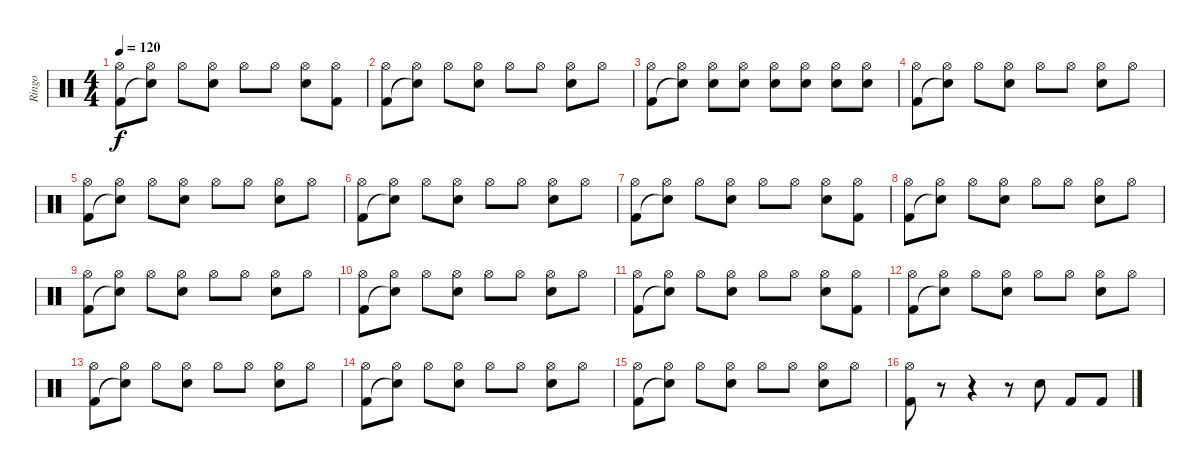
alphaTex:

\track ("Ringo" "Ringo") {instrument percussion}
\staff {score}
\articulation defaults
\ts (4 4)
\tempo 120
\clef neutral
\ks c
("Hi-Hat (open)" "Kick (hit) 2").8{dy f} ("Hi-Hat (open)" "Snare (hit)"{t}).8 "Hi-Hat (open)".8 ("Hi-Hat (open)" "Snare (hit) 2").8 "Hi-Hat (open)".8 "Hi-Hat (open)".8 ("Hi-Hat (open)" "Snare (hit) 2").8 ("Hi-Hat (open)" "Kick (hit) 2").8 |
("Hi-Hat (open)" "Kick (hit) 2").8 ("Hi-Hat (open)" "Snare (hit)"{t}).8 "Hi-Hat (open)".8 ("Hi-Hat (open)" "Snare (hit) 2").8 "Hi-Hat (open)".8 "Hi-Hat (open)".8 ("Hi-Hat (open)" "Snare (hit) 2").8 "Hi-Hat (open)".8 |
("Hi-Hat (open)" "Kick (hit) 2").8 ("Hi-Hat (open)" "Snare (hit)"{t}).8 ("Hi-Hat (open)" "Snare (hit) 2").8 ("Hi-Hat (open)" "Snare (hit) 2").8 ("Hi-Hat (open)" "Snare (hit) 2").8 ("Hi-Hat (open)" "Snare (hit) 2").8 ("Hi-Hat (open)" "Snare (hit) 2").8 ("Hi-Hat (open)" "Snare (hit) 2").8 |
("Hi-Hat (open)" "Kick (hit) 2").8 ("Hi-Hat (open)" "Snare (hit)"{t}).8 "Hi-Hat (open)".8 ("Hi-Hat (open)" "Snare (hit) 2").8 "Hi-Hat (open)".8 "Hi-Hat (open)".8 ("Hi-Hat (open)" "Snare (hit) 2").8 "Hi-Hat (open)".8 |
("Hi-Hat (open)" "Kick (hit) 2").8 ("Hi-Hat (open)" "Snare (hit)"{t}).8 "Hi-Hat (open)".8 ("Hi-Hat (open)" "Snare (hit) 2").8 "Hi-Hat (open)".8 "Hi-Hat (open)".8 ("Hi-Hat (open)" "Snare (hit) 2").8 "Hi-Hat (open)".8 |
("Hi-Hat (open)" "Kick (hit) 2").8 ("Hi-Hat (open)" "Snare (hit)"{t}).8 "Hi-Hat (open)".8 ("Hi-Hat (open)" "Snare (hit) 2").8 "Hi-Hat (open)".8 "Hi-Hat (open)".8 ("Hi-Hat (open)" "Snare (hit) 2").8 "Hi-Hat (open)".8 |
("Hi-Hat (open)" "Kick (hit) 2").8 ("Hi-Hat (open)" "Snare (hit)"{t}).8 "Hi-Hat (open)".8 ("Hi-Hat (open)" "Snare (hit) 2").8 "Hi-Hat (open)".8 "Hi-Hat (open)".8 ("Hi-Hat (open)" "Snare (hit) 2").8 ("Hi-Hat (open)" "Kick (hit) 2").8 |
("Hi-Hat (open)" "Kick (hit) 2").8 ("Hi-Hat (open)" "Snare (hit)"{t}).8 "Hi-Hat (open)".8 ("Hi-Hat (open)" "Snare (hit) 2").8 "Hi-Hat (open)".8 "Hi-Hat (open)".8 ("Hi-Hat (open)" "Snare (hit) 2").8 "Hi-Hat (open)".8 |
("Hi-Hat (open)" "Kick (hit) 2").8 ("Hi-Hat (open)" "Snare (hit)"{t}).8 "Hi-Hat (open)".8 ("Hi-Hat (open)" "Snare (hit) 2").8 "Hi-Hat (open)".8 "Hi-Hat (open)".8 ("Hi-Hat (open)" "Snare (hit) 2").8 "Hi-Hat (open)".8 |
("Hi-Hat (open)" "Kick (hit) 2").8 ("Hi-Hat (open)" "Snare (hit)"{t}).8 "Hi-Hat (open)".8 ("Hi-Hat (open)" "Snare (hit) 2").8 "Hi-Hat (open)".8 "Hi-Hat (open)".8 ("Hi-Hat (open)" "Snare (hit) 2").8 "Hi-Hat (open)".8 |
("Hi-Hat (open)" "Kick (hit) 2").8 ("Hi-Hat (open)" "Snare (hit)"{t}).8 "Hi-Hat (open)".8 ("Hi-Hat (open)" "Snare (hit) 2").8 "Hi-Hat (open)".8 "Hi-Hat (open)".8 ("Hi-Hat (open)" "Snare (hit) 2").8 ("Hi-Hat (open)" "Kick (hit) 2").8 |
("Hi-Hat (open)" "Kick (hit) 2").8 ("Hi-Hat (open)" "Snare (hit)"{t}).8 "Hi-Hat (open)".8 ("Hi-Hat (open)" "Snare (hit) 2").8 "Hi-Hat (open)".8 "Hi-Hat (open)".8 ("Hi-Hat (open)" "Snare (hit) 2").8 "Hi-Hat (open)".8 |
("Hi-Hat (open)" "Kick (hit) 2").8 ("Hi-Hat (open)" "Snare (hit)"{t}).8 "Hi-Hat (open)".8 ("Hi-Hat (open)" "Snare (hit) 2").8 "Hi-Hat (open)".8 "Hi-Hat (open)".8 ("Hi-Hat (open)" "Snare (hit) 2").8 "Hi-Hat (open)".8 |
("Hi-Hat (open)" "Kick (hit) 2").8 ("Hi-Hat (open)" "Snare (hit)"{t}).8 "Hi-Hat (open)".8 ("Hi-Hat (open)" "Snare (hit) 2").8 "Hi-Hat (open)".8 "Hi-Hat (open)".8 ("Hi-Hat (open)" "Snare (hit) 2").8 "Hi-Hat (open)".8 |
("Hi-Hat (open)" "Kick (hit) 2").8 ("Hi-Hat (open)" "Snare (hit)"{t}).8 "Hi-Hat (open)".8 ("Hi-Hat (open)" "Snare (hit) 2").8 "Hi-Hat (open)".8 "Hi-Hat (open)".8 ("Hi-Hat (open)" "Snare (hit) 2").8 "Hi-Hat (open)".8 |
("Hi-Hat (open)" "Kick (hit) 2").8 r.8 r.4 r.8 "Snare (hit) 2".8 "Kick (hit) 2".8 "Kick (hit) 2".8
